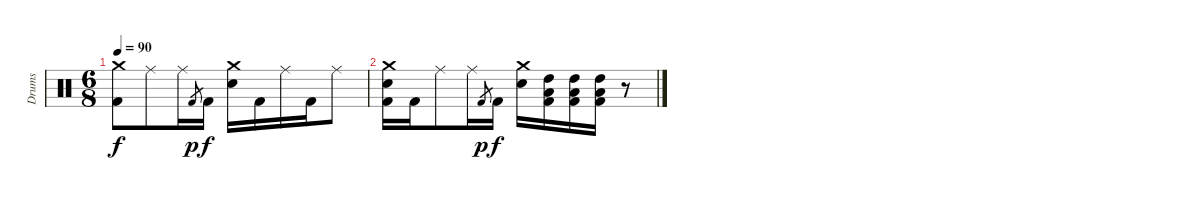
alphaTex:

\track ("Drums" "Drums") {instrument percussion}
\staff {score}
\articulation defaults
\ts (6 8)
\tempo 90
\clef neutral
\ks c
("Crash medium (hit)" "Kick (hit) 2").8{dy f} "Ride (middle)".8 "Ride (middle)".16 "Kick (hit) 2".8{gr dy p} "Kick (hit) 2".16{dy f} ("Crash medium (hit)" "Snare (hit) 2").16 "Kick (hit) 2".16 "Ride (middle)".16 "Kick (hit) 2".16 "Ride (middle)".8 |
("Crash medium (hit)" "Snare (hit) 2" "Kick (hit) 2").16 "Kick (hit) 2".16 "Ride (middle)".8 "Ride (middle)".16 "Kick (hit) 2".8{gr dy p} "Kick (hit) 2".16{dy f} ("Crash medium (hit)" "Snare (hit) 2").16 ("High Tom (hit)" "Low Floor Tom (hit)" "Kick (hit) 2").16 ("High Tom (hit)" "Low Floor Tom (hit)" "Kick (hit) 2").16 ("High Tom (hit)" "Low Floor Tom (hit)" "Kick (hit) 2").16 r.8
